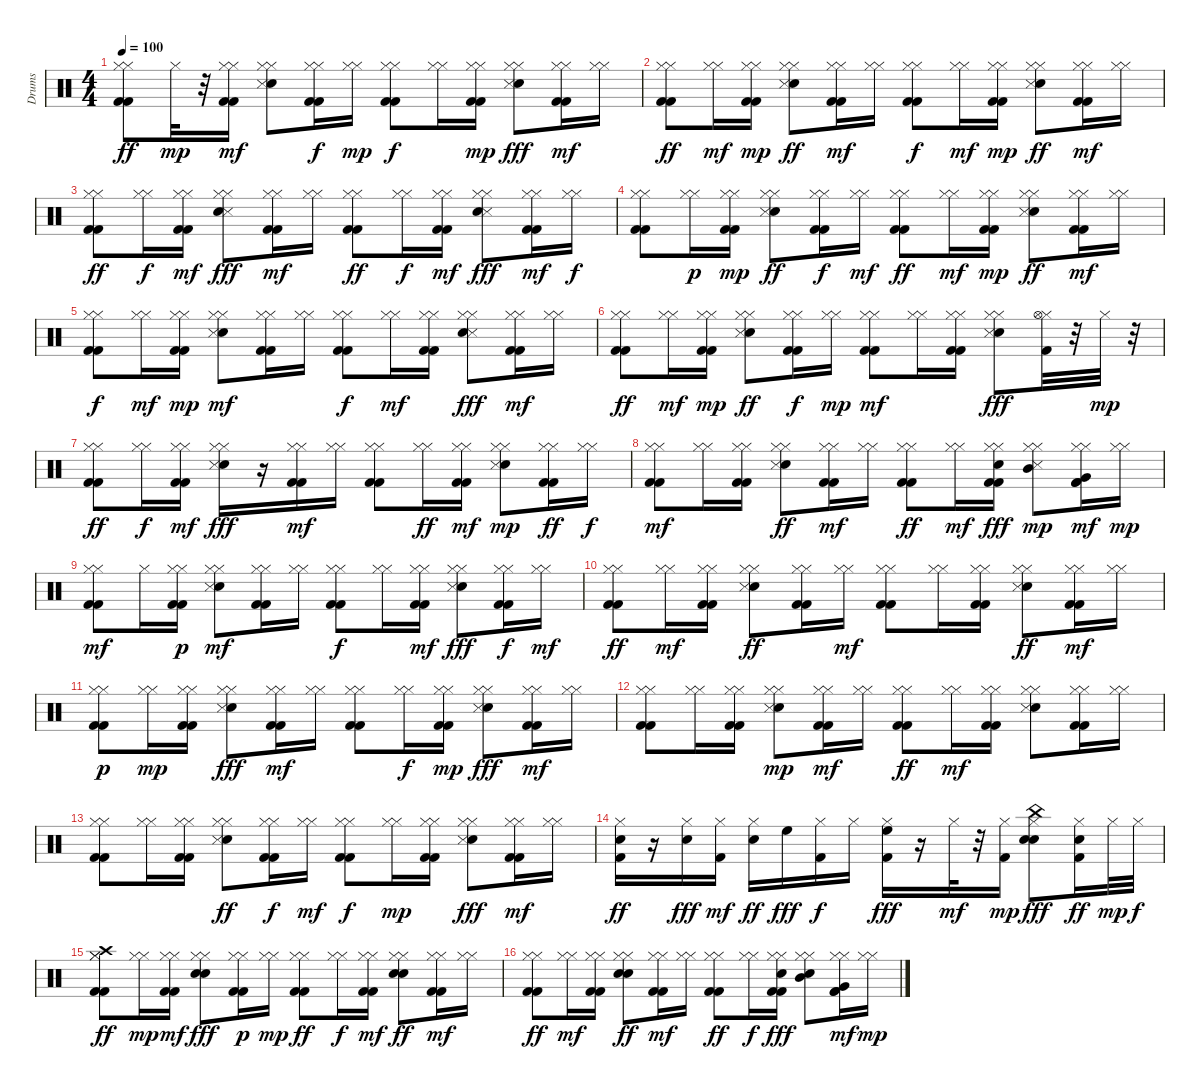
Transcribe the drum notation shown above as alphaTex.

\track ("Drums" "Drums") {instrument percussion}
\staff {score}
\articulation defaults
\ts (4 4)
\tempo 100
\clef neutral
\ks c
("Kick (hit) 2" "Hi-Hat (closed)" "Kick (hit) 2" "Hi-Hat (closed)").8{dy ff} "Hi-Hat (closed)".32{dy mp} r.32 ("Hi-Hat (closed)" "Kick (hit) 2" "Hi-Hat (closed)" "Kick (hit) 2").16{dy mf} ("Snare (hit) 2" "Hi-Hat (closed)" "Hi-Hat (closed)" "Snare (side stick) 3").8 ("Kick (hit) 2" "Hi-Hat (closed)" "Hi-Hat (closed)" "Kick (hit) 2").16{dy f} ("Hi-Hat (closed)" "Hi-Hat (closed)").16{dy mp} ("Kick (hit) 2" "Hi-Hat (closed)" "Kick (hit) 2" "Hi-Hat (closed)").8{dy f} ("Hi-Hat (closed)" "Hi-Hat (closed)").16 ("Kick (hit) 2" "Hi-Hat (closed)" "Kick (hit) 2" "Hi-Hat (closed)").16{dy mp} ("Hi-Hat (closed)" "Hi-Hat (closed)" "Snare (hit) 2" "Snare (side stick) 3").8{dy fff} ("Kick (hit) 2" "Hi-Hat (closed)" "Kick (hit) 2" "Hi-Hat (closed)").16{dy mf} ("Hi-Hat (closed)" "Hi-Hat (closed)").16 |
("Kick (hit) 2" "Hi-Hat (closed)" "Hi-Hat (closed)" "Kick (hit) 2").8{dy ff} ("Hi-Hat (closed)" "Hi-Hat (closed)").16{dy mf} ("Kick (hit) 2" "Hi-Hat (closed)" "Kick (hit) 2" "Hi-Hat (closed)").16{dy mp} ("Hi-Hat (closed)" "Snare (hit) 2" "Hi-Hat (closed)" "Snare (side stick) 3").8{dy ff} ("Kick (hit) 2" "Hi-Hat (closed)" "Kick (hit) 2" "Hi-Hat (closed)").16{dy mf} ("Hi-Hat (closed)" "Hi-Hat (closed)").16 ("Kick (hit) 2" "Hi-Hat (closed)" "Hi-Hat (closed)" "Kick (hit) 2").8{dy f} ("Hi-Hat (closed)" "Hi-Hat (closed)").16{dy mf} ("Kick (hit) 2" "Hi-Hat (closed)" "Kick (hit) 2" "Hi-Hat (closed)").16{dy mp} ("Hi-Hat (closed)" "Hi-Hat (closed)" "Snare (hit) 2" "Snare (side stick) 3").8{dy ff} ("Hi-Hat (closed)" "Kick (hit) 2" "Kick (hit) 2" "Hi-Hat (closed)").16{dy mf} ("Hi-Hat (closed)" "Hi-Hat (closed)").16 |
("Hi-Hat (closed)" "Kick (hit) 2" "Kick (hit) 2" "Hi-Hat (closed)").8{dy ff} ("Hi-Hat (closed)" "Hi-Hat (closed)").16{dy f} ("Kick (hit) 2" "Hi-Hat (closed)" "Kick (hit) 2" "Hi-Hat (closed)").16{dy mf} ("Hi-Hat (closed)" "Hi-Hat (closed)" "Snare (side stick) 3" "Snare (hit) 2").8{dy fff} ("Kick (hit) 2" "Hi-Hat (closed)" "Kick (hit) 2" "Hi-Hat (closed)").16{dy mf} ("Hi-Hat (closed)" "Hi-Hat (closed)").16 ("Hi-Hat (closed)" "Kick (hit) 2" "Kick (hit) 2" "Hi-Hat (closed)").8{dy ff} ("Hi-Hat (closed)" "Hi-Hat (closed)").16{dy f} ("Kick (hit) 2" "Hi-Hat (closed)" "Hi-Hat (closed)" "Kick (hit) 2").16{dy mf} ("Hi-Hat (closed)" "Hi-Hat (closed)" "Snare (side stick) 3" "Snare (hit) 2").8{dy fff} ("Kick (hit) 2" "Hi-Hat (closed)" "Kick (hit) 2" "Hi-Hat (closed)").16{dy mf} ("Hi-Hat (closed)" "Hi-Hat (closed)").16{dy f} |
("Hi-Hat (closed)" "Kick (hit) 2" "Kick (hit) 2" "Hi-Hat (closed)").8 ("Hi-Hat (closed)" "Hi-Hat (closed)").16{dy p} ("Kick (hit) 2" "Hi-Hat (closed)" "Kick (hit) 2" "Hi-Hat (closed)").16{dy mp} ("Hi-Hat (closed)" "Hi-Hat (closed)" "Snare (hit) 2" "Snare (side stick) 3").8{dy ff} ("Kick (hit) 2" "Kick (hit) 2" "Hi-Hat (closed)" "Hi-Hat (closed)").16{dy f} ("Hi-Hat (closed)" "Hi-Hat (closed)").16{dy mf} ("Kick (hit) 2" "Hi-Hat (closed)" "Kick (hit) 2" "Hi-Hat (closed)").8{dy ff} ("Hi-Hat (closed)" "Hi-Hat (closed)").16{dy mf} ("Kick (hit) 2" "Hi-Hat (closed)" "Kick (hit) 2" "Hi-Hat (closed)").16{dy mp} ("Hi-Hat (closed)" "Hi-Hat (closed)" "Snare (hit) 2" "Snare (side stick) 3").8{dy ff} ("Kick (hit) 2" "Hi-Hat (closed)" "Kick (hit) 2" "Hi-Hat (closed)").16{dy mf} ("Hi-Hat (closed)" "Hi-Hat (closed)").16 |
("Kick (hit) 2" "Hi-Hat (closed)" "Kick (hit) 2" "Hi-Hat (closed)").8{dy f} ("Hi-Hat (closed)" "Hi-Hat (closed)").16{dy mf} ("Kick (hit) 2" "Hi-Hat (closed)" "Hi-Hat (closed)" "Kick (hit) 2").16{dy mp} ("Hi-Hat (closed)" "Snare (hit) 2" "Hi-Hat (closed)" "Snare (side stick) 3").8{dy mf} ("Kick (hit) 2" "Hi-Hat (closed)" "Kick (hit) 2" "Hi-Hat (closed)").16 ("Hi-Hat (closed)" "Hi-Hat (closed)").16 ("Kick (hit) 2" "Hi-Hat (closed)" "Kick (hit) 2" "Hi-Hat (closed)").8{dy f} ("Hi-Hat (closed)" "Hi-Hat (closed)").16{dy mf} ("Kick (hit) 2" "Hi-Hat (closed)" "Kick (hit) 2" "Hi-Hat (closed)").16 ("Hi-Hat (closed)" "Hi-Hat (closed)" "Snare (side stick) 3" "Snare (hit) 2").8{dy fff} ("Kick (hit) 2" "Hi-Hat (closed)" "Kick (hit) 2" "Hi-Hat (closed)").16{dy mf} ("Hi-Hat (closed)" "Hi-Hat (closed)").16 |
("Kick (hit) 2" "Hi-Hat (closed)" "Kick (hit) 2" "Hi-Hat (closed)").8{dy ff} ("Hi-Hat (closed)" "Hi-Hat (closed)").16{dy mf} ("Kick (hit) 2" "Hi-Hat (closed)" "Kick (hit) 2" "Hi-Hat (closed)").16{dy mp} ("Hi-Hat (closed)" "Hi-Hat (closed)" "Snare (hit) 2" "Snare (side stick) 3").8{dy ff} ("Kick (hit) 2" "Hi-Hat (closed)" "Kick (hit) 2" "Hi-Hat (closed)").16{dy f} ("Hi-Hat (closed)" "Hi-Hat (closed)").16{dy mp} ("Hi-Hat (closed)" "Kick (hit) 2" "Kick (hit) 2" "Hi-Hat (closed)").8{dy mf} ("Hi-Hat (closed)" "Hi-Hat (closed)").16 ("Kick (hit) 2" "Hi-Hat (closed)" "Kick (hit) 2" "Hi-Hat (closed)").16 ("Hi-Hat (closed)" "Hi-Hat (closed)" "Snare (hit) 2" "Snare (side stick) 3").8{dy fff} ("Kick (hit) 2" "Hi-Hat (closed)" "Hi-Hat (open)").32 r.32 "Hi-Hat (closed)".32{dy mp} r.32 |
("Kick (hit) 2" "Hi-Hat (closed)" "Hi-Hat (closed)" "Kick (hit) 2").8{dy ff} ("Hi-Hat (closed)" "Hi-Hat (closed)").16{dy f} ("Hi-Hat (closed)" "Kick (hit) 2" "Hi-Hat (closed)" "Kick (hit) 2").16{dy mf} ("Hi-Hat (closed)" "Hi-Hat (closed)" "Snare (hit) 2" "Snare (side stick) 3").16{dy fff} r.16 ("Kick (hit) 2" "Hi-Hat (closed)" "Kick (hit) 2" "Hi-Hat (closed)").16{dy mf} ("Hi-Hat (closed)" "Hi-Hat (closed)").16 ("Kick (hit) 2" "Hi-Hat (closed)" "Hi-Hat (closed)" "Kick (hit) 2").8 ("Hi-Hat (closed)" "Hi-Hat (closed)").16{dy ff} ("Kick (hit) 2" "Hi-Hat (closed)" "Kick (hit) 2" "Hi-Hat (closed)").16{dy mf} ("Hi-Hat (closed)" "Snare (hit) 2" "Hi-Hat (closed)" "Snare (side stick) 3").8{dy mp} ("Kick (hit) 2" "Hi-Hat (closed)" "Hi-Hat (closed)" "Kick (hit) 2").16{dy ff} ("Hi-Hat (closed)" "Hi-Hat (closed)").16{dy f} |
("Hi-Hat (closed)" "Kick (hit) 2" "Kick (hit) 2" "Hi-Hat (closed)").8{dy mf} ("Hi-Hat (closed)" "Hi-Hat (closed)").16 ("Kick (hit) 2" "Hi-Hat (closed)" "Kick (hit) 2" "Hi-Hat (closed)").16 ("Hi-Hat (closed)" "Snare (hit) 2" "Hi-Hat (closed)" "Snare (side stick) 3").8{dy ff} ("Hi-Hat (closed)" "Kick (hit) 2" "Kick (hit) 2" "Hi-Hat (closed)").16{dy mf} ("Hi-Hat (closed)" "Hi-Hat (closed)").16 ("Hi-Hat (closed)" "Kick (hit) 2" "Hi-Hat (closed)" "Kick (hit) 2").8{dy ff} ("Hi-Hat (closed)" "Hi-Hat (closed)").16{dy mf} ("Hi-Hat (closed)" "Kick (hit) 2" "Kick (hit) 2" "Hi-Hat (closed)" "Snare (hit) 2").16{dy fff} ("Hi-Hat (closed)" "Hi-Hat (closed)" "Mid Tom (hit)" "Snare (side stick) 3").8{dy mp} ("Kick (hit) 2" "Hi-Hat (closed)" "Kick (hit) 2" "Hi-Hat (closed)" "Very Low Tom (hit)").16{dy mf} ("Hi-Hat (closed)" "Hi-Hat (closed)").16{dy mp} |
("Kick (hit) 2" "Hi-Hat (closed)" "Hi-Hat (closed)" "Kick (hit) 2").8{dy mf} "Hi-Hat (closed)".16 ("Hi-Hat (closed)" "Kick (hit) 2" "Kick (hit) 2" "Hi-Hat (closed)").16{dy p} ("Snare (hit) 2" "Hi-Hat (closed)" "Hi-Hat (closed)" "Snare (side stick) 3").8{dy mf} ("Kick (hit) 2" "Hi-Hat (closed)" "Hi-Hat (closed)" "Kick (hit) 2").16 ("Hi-Hat (closed)" "Hi-Hat (closed)").16 ("Kick (hit) 2" "Hi-Hat (closed)" "Kick (hit) 2" "Hi-Hat (closed)").8{dy f} ("Hi-Hat (closed)" "Hi-Hat (closed)").16 ("Kick (hit) 2" "Hi-Hat (closed)" "Kick (hit) 2" "Hi-Hat (closed)").16{dy mf} ("Hi-Hat (closed)" "Hi-Hat (closed)" "Snare (hit) 2" "Snare (side stick) 3").8{dy fff} ("Kick (hit) 2" "Hi-Hat (closed)" "Hi-Hat (closed)" "Kick (hit) 2").16{dy f} ("Hi-Hat (closed)" "Hi-Hat (closed)").16{dy mf} |
("Kick (hit) 2" "Hi-Hat (closed)" "Kick (hit) 2" "Hi-Hat (closed)").8{dy ff} ("Hi-Hat (closed)" "Hi-Hat (closed)").16{dy mf} ("Kick (hit) 2" "Hi-Hat (closed)" "Kick (hit) 2" "Hi-Hat (closed)").16 ("Hi-Hat (closed)" "Snare (hit) 2" "Hi-Hat (closed)" "Snare (side stick) 3").8{dy ff} ("Kick (hit) 2" "Hi-Hat (closed)" "Hi-Hat (closed)" "Kick (hit) 2").16 ("Hi-Hat (closed)" "Hi-Hat (closed)").16{dy mf} ("Kick (hit) 2" "Hi-Hat (closed)" "Hi-Hat (closed)" "Kick (hit) 2").8 ("Hi-Hat (closed)" "Hi-Hat (closed)").16 ("Kick (hit) 2" "Hi-Hat (closed)" "Kick (hit) 2" "Hi-Hat (closed)").16 ("Hi-Hat (closed)" "Hi-Hat (closed)" "Snare (hit) 2" "Snare (side stick) 3").8{dy ff} ("Hi-Hat (closed)" "Kick (hit) 2" "Hi-Hat (closed)" "Kick (hit) 2").16{dy mf} ("Hi-Hat (closed)" "Hi-Hat (closed)").16 |
("Hi-Hat (closed)" "Kick (hit) 2" "Kick (hit) 2" "Hi-Hat (closed)").8{dy p} ("Hi-Hat (closed)" "Hi-Hat (closed)").16{dy mp} ("Kick (hit) 2" "Hi-Hat (closed)" "Kick (hit) 2" "Hi-Hat (closed)").16 ("Hi-Hat (closed)" "Hi-Hat (closed)" "Snare (hit) 2" "Snare (side stick) 3").8{dy fff} ("Kick (hit) 2" "Hi-Hat (closed)" "Kick (hit) 2" "Hi-Hat (closed)").16{dy mf} ("Hi-Hat (closed)" "Hi-Hat (closed)").16 ("Hi-Hat (closed)" "Kick (hit) 2" "Kick (hit) 2" "Hi-Hat (closed)").8 ("Hi-Hat (closed)" "Hi-Hat (closed)").16{dy f} ("Kick (hit) 2" "Hi-Hat (closed)" "Hi-Hat (closed)" "Kick (hit) 2").16{dy mp} ("Hi-Hat (closed)" "Hi-Hat (closed)" "Snare (hit) 2" "Snare (side stick) 3").8{dy fff} ("Kick (hit) 2" "Hi-Hat (closed)" "Kick (hit) 2" "Hi-Hat (closed)").16{dy mf} ("Hi-Hat (closed)" "Hi-Hat (closed)").16 |
("Hi-Hat (closed)" "Kick (hit) 2" "Hi-Hat (closed)" "Kick (hit) 2").8 ("Hi-Hat (closed)" "Hi-Hat (closed)").16 ("Kick (hit) 2" "Hi-Hat (closed)" "Kick (hit) 2" "Hi-Hat (closed)").16 ("Hi-Hat (closed)" "Snare (hit) 2" "Hi-Hat (closed)" "Snare (side stick) 3").8{dy mp} ("Kick (hit) 2" "Hi-Hat (closed)" "Kick (hit) 2" "Hi-Hat (closed)").16{dy mf} ("Hi-Hat (closed)" "Hi-Hat (closed)").16 ("Kick (hit) 2" "Hi-Hat (closed)" "Hi-Hat (closed)" "Kick (hit) 2").8{dy ff} ("Hi-Hat (closed)" "Hi-Hat (closed)").16{dy mf} ("Kick (hit) 2" "Hi-Hat (closed)" "Kick (hit) 2" "Hi-Hat (closed)").16 ("Hi-Hat (closed)" "Snare (hit) 2" "Hi-Hat (closed)" "Snare (side stick) 3").8 ("Kick (hit) 2" "Hi-Hat (closed)" "Hi-Hat (closed)" "Kick (hit) 2").16 ("Hi-Hat (closed)" "Hi-Hat (closed)").16 |
("Kick (hit) 2" "Hi-Hat (closed)" "Kick (hit) 2" "Hi-Hat (closed)").8 ("Hi-Hat (closed)" "Hi-Hat (closed)").16 ("Kick (hit) 2" "Hi-Hat (closed)" "Kick (hit) 2" "Hi-Hat (closed)").16 ("Hi-Hat (closed)" "Hi-Hat (closed)" "Snare (hit) 2" "Snare (side stick) 3").8{dy ff} ("Kick (hit) 2" "Hi-Hat (closed)" "Kick (hit) 2" "Hi-Hat (closed)").16{dy f} ("Hi-Hat (closed)" "Hi-Hat (closed)").16{dy mf} ("Kick (hit) 2" "Hi-Hat (closed)" "Kick (hit) 2" "Hi-Hat (closed)").8{dy f} ("Hi-Hat (closed)" "Hi-Hat (closed)").16{dy mp} ("Kick (hit) 2" "Kick (hit) 2" "Hi-Hat (closed)" "Hi-Hat (closed)").16 ("Hi-Hat (closed)" "Hi-Hat (closed)" "Snare (hit) 2" "Snare (side stick) 3").8{dy fff} ("Kick (hit) 2" "Hi-Hat (closed)" "Hi-Hat (closed)" "Kick (hit) 2").16{dy mf} ("Hi-Hat (closed)" "Hi-Hat (closed)").16 |
("Kick (hit) 2" "Hi-Hat (closed)" "Snare (hit) 2").16{dy ff} r.16 ("Hi-Hat (closed)" "Snare (hit) 2").16{dy fff} ("Kick (hit) 2" "Hi-Hat (closed)").16{dy mf} ("Hi-Hat (closed)" "Snare (hit) 2").16{dy ff} "High Floor Tom (hit)".16{dy fff} ("Kick (hit) 2" "Hi-Hat (closed)").16{dy f} "Hi-Hat (closed)".16 ("Hi-Hat (closed)" "Kick (hit) 2" "High Floor Tom (hit)").16{dy fff} r.16 "Hi-Hat (closed)".32{dy mf} r.32 ("Kick (hit) 2" "Hi-Hat (closed)").16{dy mp} ("China (hit)" "Hi-Hat (closed)" "Snare (hit) 2" "Snare (hit) 2").8{dy fff} ("Kick (hit) 2" "Hi-Hat (closed)" "Snare (hit) 2").16{dy ff} "Hi-Hat (closed)".32{dy mp} "Hi-Hat (closed)".32{dy f} |
("Kick (hit) 2" "Crash high (hit)" "Hi-Hat (closed)" "Hi-Hat (closed)" "Kick (hit) 2").8{dy ff} ("Hi-Hat (closed)" "Hi-Hat (closed)").16{dy mp} ("Hi-Hat (closed)" "Kick (hit) 2" "Hi-Hat (closed)" "Kick (hit) 2").16{dy mf} ("Hi-Hat (closed)" "Hi-Hat (closed)" "Snare (hit) 2" "Snare (hit) 2").8{dy fff} ("Kick (hit) 2" "Hi-Hat (closed)" "Kick (hit) 2" "Hi-Hat (closed)").16{dy p} ("Hi-Hat (closed)" "Hi-Hat (closed)").16{dy mp} ("Kick (hit) 2" "Hi-Hat (closed)" "Kick (hit) 2" "Hi-Hat (closed)").8{dy ff} ("Hi-Hat (closed)" "Hi-Hat (closed)").16{dy f} ("Kick (hit) 2" "Hi-Hat (closed)" "Kick (hit) 2" "Hi-Hat (closed)").16{dy mf} ("Hi-Hat (closed)" "Hi-Hat (closed)" "Snare (hit) 2" "Snare (hit) 2").8{dy ff} ("Kick (hit) 2" "Hi-Hat (closed)" "Kick (hit) 2" "Hi-Hat (closed)").16{dy mf} ("Hi-Hat (closed)" "Hi-Hat (closed)").16 |
("Hi-Hat (closed)" "Kick (hit) 2" "Kick (hit) 2" "Hi-Hat (closed)").8{dy ff} ("Hi-Hat (closed)" "Hi-Hat (closed)").16{dy mf} ("Kick (hit) 2" "Hi-Hat (closed)" "Kick (hit) 2" "Hi-Hat (closed)").16 ("Hi-Hat (closed)" "Snare (hit) 2" "Hi-Hat (closed)" "Snare (hit) 2").8{dy ff} ("Hi-Hat (closed)" "Kick (hit) 2" "Kick (hit) 2" "Hi-Hat (closed)").16{dy mf} ("Hi-Hat (closed)" "Hi-Hat (closed)").16 ("Hi-Hat (closed)" "Kick (hit) 2" "Kick (hit) 2" "Hi-Hat (closed)").8{dy ff} ("Hi-Hat (closed)" "Hi-Hat (closed)").16{dy f} ("Hi-Hat (closed)" "Kick (hit) 2" "Kick (hit) 2" "Hi-Hat (closed)" "Snare (hit) 2").16{dy fff} ("Hi-Hat (closed)" "Hi-Hat (closed)" "Mid Tom (hit)" "Snare (hit) 2").8 ("Kick (hit) 2" "Hi-Hat (closed)" "Kick (hit) 2" "Hi-Hat (closed)" "Very Low Tom (hit)").16{dy mf} ("Hi-Hat (closed)" "Hi-Hat (closed)").16{dy mp}
